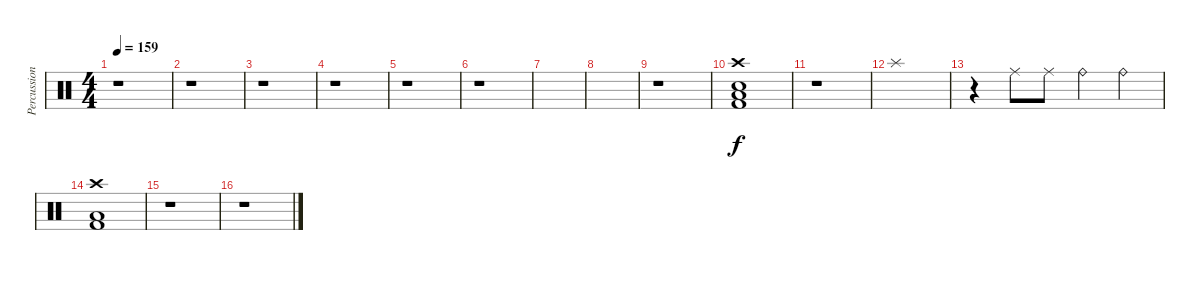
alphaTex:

\track ("Percussions" "Percussion") {instrument percussion}
\staff {score}
\articulation defaults
\ts (4 4)
\tempo 159
\tempo 169
\tempo 159
\clef neutral
\ks c
r.1{dy f} |
r.1 |
r.1 |
r.1 |
r.1 |
r.1 |
|
|
r.1 |
("Crash high (hit)" "Kick (hit) 2" "Low Tom (hit)" "Electric Snare (hit)").1 |
r.1{volume 10} |
"Splash (hit)".1 |
r.4 "Ride (middle)".8 "Ride (middle)".8 "Ride (bell)".4 "Ride (bell)".4 |
("Crash high (hit)" "Kick (hit) 2" "Low Tom (hit)").1{volume 12} |
r.1 |
r.1
